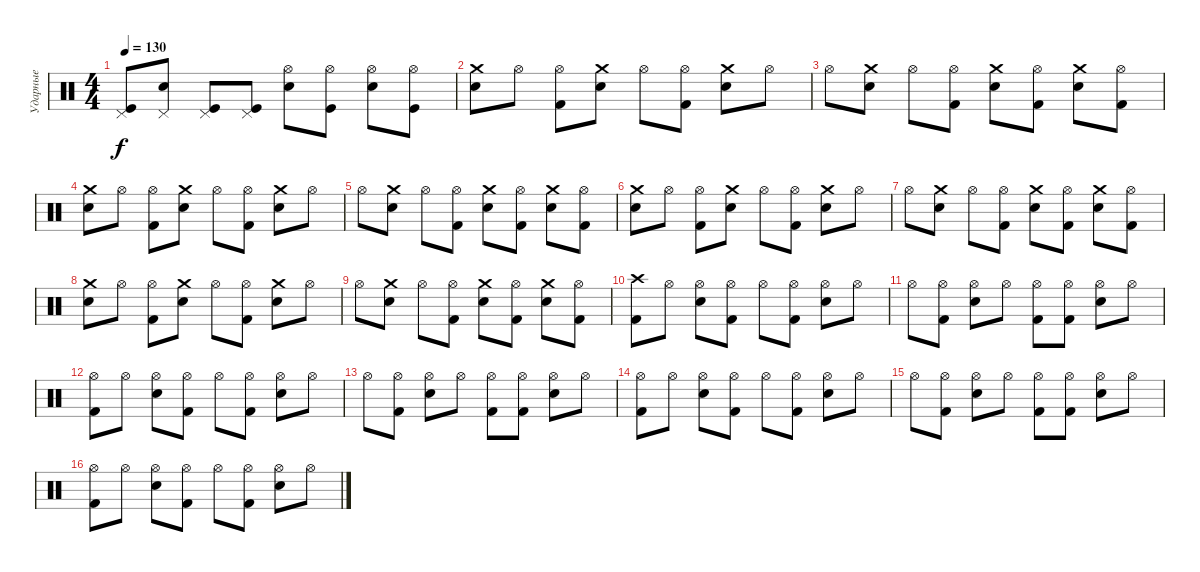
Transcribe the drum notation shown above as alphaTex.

\track ("Ударные" "Ударные") {instrument percussion}
\staff {score}
\articulation defaults
\ts (4 4)
\tempo 130
\clef neutral
\ks c
("Pedal Hi-Hat (hit)" "Kick (hit)").8{dy f} ("Pedal Hi-Hat (hit)" "Electric Snare (hit)").8 ("Pedal Hi-Hat (hit)" "Kick (hit)").8 ("Pedal Hi-Hat (hit)" "Kick (hit)").8 ("Hi-Hat (open)" "Electric Snare (hit)").8 ("Hi-Hat (open)" "Kick (hit)").8 ("Hi-Hat (open)" "Electric Snare (hit)").8 ("Hi-Hat (open)" "Kick (hit)").8 |
("Crash medium (hit)" "Snare (hit) 2").8 "Hi-Hat (open)".8 ("Hi-Hat (open)" "Kick (hit) 2").8 ("Crash medium (hit)" "Snare (hit) 2").8 "Hi-Hat (open)".8 ("Hi-Hat (open)" "Kick (hit) 2").8 ("Crash medium (hit)" "Snare (hit) 2").8 "Hi-Hat (open)".8 |
"Hi-Hat (open)".8 ("Crash medium (hit)" "Snare (hit) 2").8 "Hi-Hat (open)".8 ("Hi-Hat (open)" "Kick (hit) 2").8 ("Crash medium (hit)" "Snare (hit) 2").8 ("Hi-Hat (open)" "Kick (hit) 2").8 ("Crash medium (hit)" "Snare (hit) 2").8 ("Hi-Hat (open)" "Kick (hit) 2").8 |
("Crash medium (hit)" "Snare (hit) 2").8 "Hi-Hat (open)".8 ("Hi-Hat (open)" "Kick (hit) 2").8 ("Crash medium (hit)" "Snare (hit) 2").8 "Hi-Hat (open)".8 ("Hi-Hat (open)" "Kick (hit) 2").8 ("Crash medium (hit)" "Snare (hit) 2").8 "Hi-Hat (open)".8 |
"Hi-Hat (open)".8 ("Crash medium (hit)" "Snare (hit) 2").8 "Hi-Hat (open)".8 ("Hi-Hat (open)" "Kick (hit) 2").8 ("Crash medium (hit)" "Snare (hit) 2").8 ("Hi-Hat (open)" "Kick (hit) 2").8 ("Crash medium (hit)" "Snare (hit) 2").8 ("Hi-Hat (open)" "Kick (hit) 2").8 |
("Crash medium (hit)" "Snare (hit) 2").8 "Hi-Hat (open)".8 ("Hi-Hat (open)" "Kick (hit) 2").8 ("Crash medium (hit)" "Snare (hit) 2").8 "Hi-Hat (open)".8 ("Hi-Hat (open)" "Kick (hit) 2").8 ("Crash medium (hit)" "Snare (hit) 2").8 "Hi-Hat (open)".8 |
"Hi-Hat (open)".8 ("Crash medium (hit)" "Snare (hit) 2").8 "Hi-Hat (open)".8 ("Hi-Hat (open)" "Kick (hit) 2").8 ("Crash medium (hit)" "Snare (hit) 2").8 ("Hi-Hat (open)" "Kick (hit) 2").8 ("Crash medium (hit)" "Snare (hit) 2").8 ("Hi-Hat (open)" "Kick (hit) 2").8 |
("Crash medium (hit)" "Snare (hit) 2").8 "Hi-Hat (open)".8 ("Hi-Hat (open)" "Kick (hit) 2").8 ("Crash medium (hit)" "Snare (hit) 2").8 "Hi-Hat (open)".8 ("Hi-Hat (open)" "Kick (hit) 2").8 ("Crash medium (hit)" "Snare (hit) 2").8 "Hi-Hat (open)".8 |
"Hi-Hat (open)".8 ("Crash medium (hit)" "Snare (hit) 2").8 "Hi-Hat (open)".8 ("Hi-Hat (open)" "Kick (hit) 2").8 ("Crash medium (hit)" "Snare (hit) 2").8 ("Hi-Hat (open)" "Kick (hit) 2").8 ("Crash medium (hit)" "Snare (hit) 2").8 ("Hi-Hat (open)" "Kick (hit) 2").8 |
("Crash high (hit)" "Kick (hit) 2").8 "Hi-Hat (open)".8 ("Hi-Hat (open)" "Snare (hit) 2").8 ("Hi-Hat (open)" "Kick (hit) 2").8 "Hi-Hat (open)".8 ("Hi-Hat (open)" "Kick (hit) 2").8 ("Hi-Hat (open)" "Snare (hit) 2").8 "Hi-Hat (open)".8 |
"Hi-Hat (open)".8 ("Hi-Hat (open)" "Kick (hit) 2").8 ("Hi-Hat (open)" "Snare (hit) 2").8 "Hi-Hat (open)".8 ("Hi-Hat (open)" "Kick (hit) 2").8 ("Hi-Hat (open)" "Kick (hit) 2").8 ("Hi-Hat (open)" "Snare (hit) 2").8 "Hi-Hat (open)".8 |
("Hi-Hat (open)" "Kick (hit) 2").8 "Hi-Hat (open)".8 ("Hi-Hat (open)" "Snare (hit) 2").8 ("Hi-Hat (open)" "Kick (hit) 2").8 "Hi-Hat (open)".8 ("Hi-Hat (open)" "Kick (hit) 2").8 ("Hi-Hat (open)" "Snare (hit) 2").8 "Hi-Hat (open)".8 |
"Hi-Hat (open)".8 ("Hi-Hat (open)" "Kick (hit) 2").8 ("Hi-Hat (open)" "Snare (hit) 2").8 "Hi-Hat (open)".8 ("Hi-Hat (open)" "Kick (hit) 2").8 ("Hi-Hat (open)" "Kick (hit) 2").8 ("Hi-Hat (open)" "Snare (hit) 2").8 "Hi-Hat (open)".8 |
("Hi-Hat (open)" "Kick (hit) 2").8 "Hi-Hat (open)".8 ("Hi-Hat (open)" "Snare (hit) 2").8 ("Hi-Hat (open)" "Kick (hit) 2").8 "Hi-Hat (open)".8 ("Hi-Hat (open)" "Kick (hit) 2").8 ("Hi-Hat (open)" "Snare (hit) 2").8 "Hi-Hat (open)".8 |
"Hi-Hat (open)".8 ("Hi-Hat (open)" "Kick (hit) 2").8 ("Hi-Hat (open)" "Snare (hit) 2").8 "Hi-Hat (open)".8 ("Hi-Hat (open)" "Kick (hit) 2").8 ("Hi-Hat (open)" "Kick (hit) 2").8 ("Hi-Hat (open)" "Snare (hit) 2").8 "Hi-Hat (open)".8 |
("Hi-Hat (open)" "Kick (hit) 2").8 "Hi-Hat (open)".8 ("Hi-Hat (open)" "Snare (hit) 2").8 ("Hi-Hat (open)" "Kick (hit) 2").8 "Hi-Hat (open)".8 ("Hi-Hat (open)" "Kick (hit) 2").8 ("Hi-Hat (open)" "Snare (hit) 2").8 "Hi-Hat (open)".8
